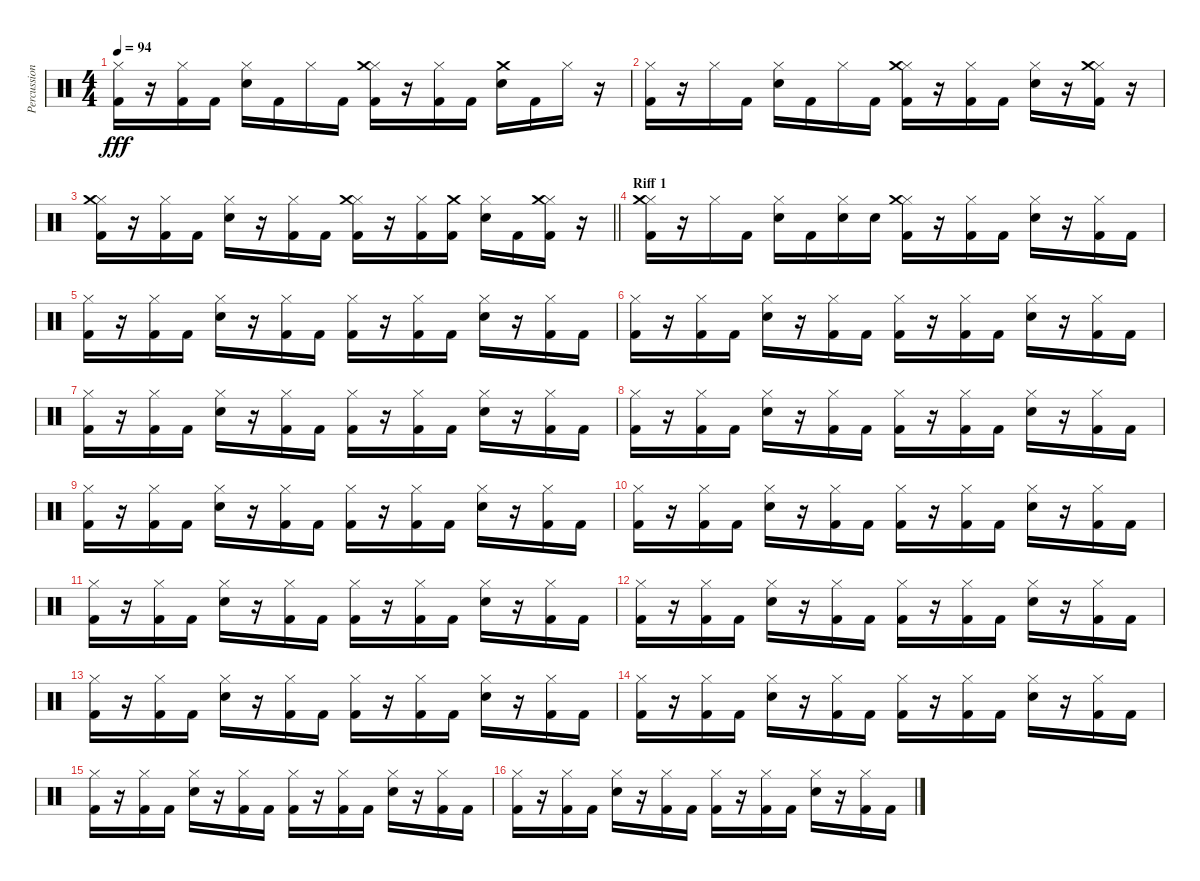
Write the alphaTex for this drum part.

\track ("Percussions" "Percussion") {instrument percussion}
\staff {score}
\articulation defaults
\ts (4 4)
\tempo 94
\clef neutral
\ks c
("Kick (hit) 2" "Hi-Hat (closed)").16{dy fff} r.16 ("Kick (hit) 2" "Hi-Hat (closed)").16 "Kick (hit) 2".16 ("Electric Snare (hit)" "Hi-Hat (closed)").16 "Kick (hit) 2".16 "Hi-Hat (closed)".16 "Kick (hit) 2".16 ("Kick (hit) 2" "Hi-Hat (closed)" "Crash medium (hit)").16 r.16 ("Kick (hit) 2" "Hi-Hat (closed)").16 "Kick (hit) 2".16 ("Electric Snare (hit)" "Crash medium (hit)").16 "Kick (hit) 2".16 "Hi-Hat (closed)".16 r.16 |
("Kick (hit) 2" "Hi-Hat (closed)").16 r.16 "Hi-Hat (closed)".16 "Kick (hit) 2".16 ("Electric Snare (hit)" "Hi-Hat (closed)").16 "Kick (hit) 2".16 "Hi-Hat (closed)".16 "Kick (hit) 2".16 ("Kick (hit) 2" "Hi-Hat (closed)" "Crash medium (hit)").16 r.16 ("Kick (hit) 2" "Hi-Hat (closed)").16 "Kick (hit) 2".16 ("Electric Snare (hit)" "Hi-Hat (closed)").16 r.16 ("Kick (hit) 2" "Hi-Hat (closed)" "Crash medium (hit)").16 r.16 |
\barLineRight lightlight
("Kick (hit) 2" "Hi-Hat (closed)" "Crash medium (hit)").16 r.16 ("Kick (hit) 2" "Hi-Hat (closed)").16 "Kick (hit) 2".16 ("Electric Snare (hit)" "Hi-Hat (closed)").16 r.16 ("Kick (hit) 2" "Hi-Hat (closed)").16 "Kick (hit) 2".16 ("Kick (hit) 2" "Hi-Hat (closed)" "Crash medium (hit)").16 r.16 ("Kick (hit) 2" "Hi-Hat (closed)").16 ("Kick (hit) 2" "Crash medium (hit)").16 ("Electric Snare (hit)" "Hi-Hat (closed)").16 "Kick (hit) 2".16 ("Kick (hit) 2" "Hi-Hat (closed)" "Crash medium (hit)").16 r.16 |
\section ("" "Riff 1")
("Kick (hit) 2" "Hi-Hat (closed)" "Crash medium (hit)").16 r.16 "Hi-Hat (closed)".16 "Kick (hit) 2".16 ("Electric Snare (hit)" "Hi-Hat (closed)").16 "Kick (hit) 2".16 ("Electric Snare (hit)" "Hi-Hat (closed)").16 "Electric Snare (hit)".16 ("Kick (hit) 2" "Hi-Hat (closed)" "Crash medium (hit)").16 r.16 ("Kick (hit) 2" "Hi-Hat (closed)").16 "Kick (hit) 2".16 ("Electric Snare (hit)" "Hi-Hat (closed)").16 r.16 ("Kick (hit) 2" "Hi-Hat (closed)").16 "Kick (hit) 2".16 |
("Kick (hit) 2" "Hi-Hat (closed)").16 r.16 ("Kick (hit) 2" "Hi-Hat (closed)").16 "Kick (hit) 2".16 ("Electric Snare (hit)" "Hi-Hat (closed)").16 r.16 ("Kick (hit) 2" "Hi-Hat (closed)").16 "Kick (hit) 2".16 ("Kick (hit) 2" "Hi-Hat (closed)").16 r.16 ("Kick (hit) 2" "Hi-Hat (closed)").16 "Kick (hit) 2".16 ("Electric Snare (hit)" "Hi-Hat (closed)").16 r.16 ("Kick (hit) 2" "Hi-Hat (closed)").16 "Kick (hit) 2".16 |
("Kick (hit) 2" "Hi-Hat (closed)").16 r.16 ("Kick (hit) 2" "Hi-Hat (closed)").16 "Kick (hit) 2".16 ("Electric Snare (hit)" "Hi-Hat (closed)").16 r.16 ("Kick (hit) 2" "Hi-Hat (closed)").16 "Kick (hit) 2".16 ("Kick (hit) 2" "Hi-Hat (closed)").16 r.16 ("Kick (hit) 2" "Hi-Hat (closed)").16 "Kick (hit) 2".16 ("Electric Snare (hit)" "Hi-Hat (closed)").16 r.16 ("Kick (hit) 2" "Hi-Hat (closed)").16 "Kick (hit) 2".16 |
("Kick (hit) 2" "Hi-Hat (closed)").16 r.16 ("Kick (hit) 2" "Hi-Hat (closed)").16 "Kick (hit) 2".16 ("Electric Snare (hit)" "Hi-Hat (closed)").16 r.16 ("Kick (hit) 2" "Hi-Hat (closed)").16 "Kick (hit) 2".16 ("Kick (hit) 2" "Hi-Hat (closed)").16 r.16 ("Kick (hit) 2" "Hi-Hat (closed)").16 "Kick (hit) 2".16 ("Electric Snare (hit)" "Hi-Hat (closed)").16 r.16 ("Kick (hit) 2" "Hi-Hat (closed)").16 "Kick (hit) 2".16 |
("Kick (hit) 2" "Hi-Hat (closed)").16 r.16 ("Kick (hit) 2" "Hi-Hat (closed)").16 "Kick (hit) 2".16 ("Electric Snare (hit)" "Hi-Hat (closed)").16 r.16 ("Kick (hit) 2" "Hi-Hat (closed)").16 "Kick (hit) 2".16 ("Kick (hit) 2" "Hi-Hat (closed)").16 r.16 ("Kick (hit) 2" "Hi-Hat (closed)").16 "Kick (hit) 2".16 ("Electric Snare (hit)" "Hi-Hat (closed)").16 r.16 ("Kick (hit) 2" "Hi-Hat (closed)").16 "Kick (hit) 2".16 |
("Kick (hit) 2" "Hi-Hat (closed)").16 r.16 ("Kick (hit) 2" "Hi-Hat (closed)").16 "Kick (hit) 2".16 ("Electric Snare (hit)" "Hi-Hat (closed)").16 r.16 ("Kick (hit) 2" "Hi-Hat (closed)").16 "Kick (hit) 2".16 ("Kick (hit) 2" "Hi-Hat (closed)").16 r.16 ("Kick (hit) 2" "Hi-Hat (closed)").16 "Kick (hit) 2".16 ("Electric Snare (hit)" "Hi-Hat (closed)").16 r.16 ("Kick (hit) 2" "Hi-Hat (closed)").16 "Kick (hit) 2".16 |
("Kick (hit) 2" "Hi-Hat (closed)").16 r.16 ("Kick (hit) 2" "Hi-Hat (closed)").16 "Kick (hit) 2".16 ("Electric Snare (hit)" "Hi-Hat (closed)").16 r.16 ("Kick (hit) 2" "Hi-Hat (closed)").16 "Kick (hit) 2".16 ("Kick (hit) 2" "Hi-Hat (closed)").16 r.16 ("Kick (hit) 2" "Hi-Hat (closed)").16 "Kick (hit) 2".16 ("Electric Snare (hit)" "Hi-Hat (closed)").16 r.16 ("Kick (hit) 2" "Hi-Hat (closed)").16 "Kick (hit) 2".16 |
("Kick (hit) 2" "Hi-Hat (closed)").16 r.16 ("Kick (hit) 2" "Hi-Hat (closed)").16 "Kick (hit) 2".16 ("Electric Snare (hit)" "Hi-Hat (closed)").16 r.16 ("Kick (hit) 2" "Hi-Hat (closed)").16 "Kick (hit) 2".16 ("Kick (hit) 2" "Hi-Hat (closed)").16 r.16 ("Kick (hit) 2" "Hi-Hat (closed)").16 "Kick (hit) 2".16 ("Electric Snare (hit)" "Hi-Hat (closed)").16 r.16 ("Kick (hit) 2" "Hi-Hat (closed)").16 "Kick (hit) 2".16 |
("Kick (hit) 2" "Hi-Hat (closed)").16 r.16 ("Kick (hit) 2" "Hi-Hat (closed)").16 "Kick (hit) 2".16 ("Electric Snare (hit)" "Hi-Hat (closed)").16 r.16 ("Kick (hit) 2" "Hi-Hat (closed)").16 "Kick (hit) 2".16 ("Kick (hit) 2" "Hi-Hat (closed)").16 r.16 ("Kick (hit) 2" "Hi-Hat (closed)").16 "Kick (hit) 2".16 ("Electric Snare (hit)" "Hi-Hat (closed)").16 r.16 ("Kick (hit) 2" "Hi-Hat (closed)").16 "Kick (hit) 2".16 |
("Kick (hit) 2" "Hi-Hat (closed)").16 r.16 ("Kick (hit) 2" "Hi-Hat (closed)").16 "Kick (hit) 2".16 ("Electric Snare (hit)" "Hi-Hat (closed)").16 r.16 ("Kick (hit) 2" "Hi-Hat (closed)").16 "Kick (hit) 2".16 ("Kick (hit) 2" "Hi-Hat (closed)").16 r.16 ("Kick (hit) 2" "Hi-Hat (closed)").16 "Kick (hit) 2".16 ("Electric Snare (hit)" "Hi-Hat (closed)").16 r.16 ("Kick (hit) 2" "Hi-Hat (closed)").16 "Kick (hit) 2".16 |
("Kick (hit) 2" "Hi-Hat (closed)").16 r.16 ("Kick (hit) 2" "Hi-Hat (closed)").16 "Kick (hit) 2".16 ("Electric Snare (hit)" "Hi-Hat (closed)").16 r.16 ("Kick (hit) 2" "Hi-Hat (closed)").16 "Kick (hit) 2".16 ("Kick (hit) 2" "Hi-Hat (closed)").16 r.16 ("Kick (hit) 2" "Hi-Hat (closed)").16 "Kick (hit) 2".16 ("Electric Snare (hit)" "Hi-Hat (closed)").16 r.16 ("Kick (hit) 2" "Hi-Hat (closed)").16 "Kick (hit) 2".16 |
("Kick (hit) 2" "Hi-Hat (closed)").16 r.16 ("Kick (hit) 2" "Hi-Hat (closed)").16 "Kick (hit) 2".16 ("Electric Snare (hit)" "Hi-Hat (closed)").16 r.16 ("Kick (hit) 2" "Hi-Hat (closed)").16 "Kick (hit) 2".16 ("Kick (hit) 2" "Hi-Hat (closed)").16 r.16 ("Kick (hit) 2" "Hi-Hat (closed)").16 "Kick (hit) 2".16 ("Electric Snare (hit)" "Hi-Hat (closed)").16 r.16 ("Kick (hit) 2" "Hi-Hat (closed)").16 "Kick (hit) 2".16 |
("Kick (hit) 2" "Hi-Hat (closed)").16 r.16 ("Kick (hit) 2" "Hi-Hat (closed)").16 "Kick (hit) 2".16 ("Electric Snare (hit)" "Hi-Hat (closed)").16 r.16 ("Kick (hit) 2" "Hi-Hat (closed)").16 "Kick (hit) 2".16 ("Kick (hit) 2" "Hi-Hat (closed)").16 r.16 ("Kick (hit) 2" "Hi-Hat (closed)").16 "Kick (hit) 2".16 ("Electric Snare (hit)" "Hi-Hat (closed)").16 r.16 ("Kick (hit) 2" "Hi-Hat (closed)").16 "Kick (hit) 2".16
